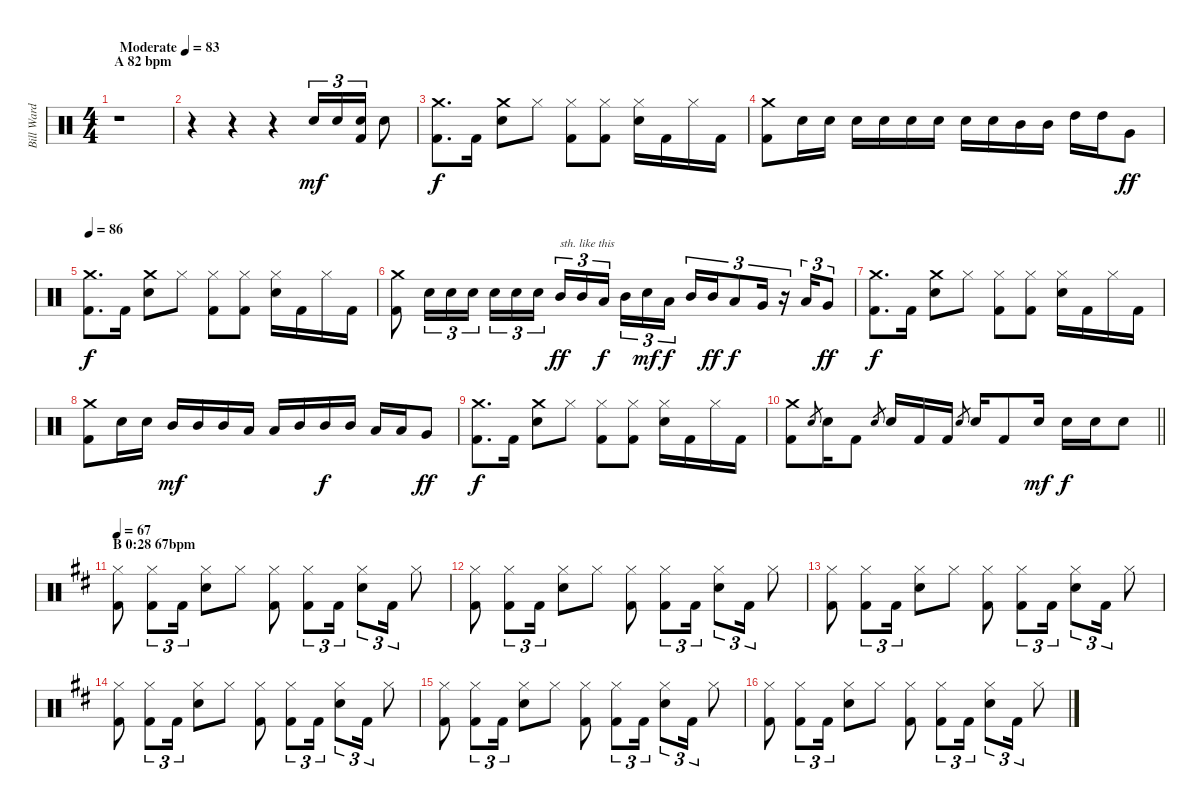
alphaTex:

\track ("Bill Ward (Drums)" "Bill Ward ") {instrument percussion}
\staff {score}
\articulation defaults
\ts (4 4)
\section ("" "A 82 bpm")
\tempo (83 "Moderate")
\clef neutral
\ks c
r.1{dy mf} |
r.4 r.4 r.4 "Snare (hit) 2".16{tu (3 2)} "Snare (hit) 2".16{tu (3 2)} ("Snare (hit) 2" "Kick (hit) 2").16{tu (3 2)} "Snare (hit) 2".8 |
("Crash medium (hit)" "Kick (hit) 2").8{d dy f volume 11} "Kick (hit) 2".16 ("Crash medium (hit)" "Snare (hit) 2").8 "Hi-Hat (closed)".8 ("Hi-Hat (closed)" "Kick (hit) 2").8 ("Hi-Hat (closed)" "Kick (hit) 2").8 ("Hi-Hat (closed)" "Snare (hit) 2").16 "Kick (hit) 2".16 "Hi-Hat (closed)".16 "Kick (hit) 2".16 |
("Crash medium (hit)" "Kick (hit) 2").8 "Snare (hit) 2".16 "Snare (hit) 2".16 "Snare (hit) 2".16 "Snare (hit) 2".16 "Snare (hit) 2".16 "Snare (hit) 2".16 "Snare (hit) 2".16 "Snare (hit) 2".16 "Mid Tom (hit)".16 "Mid Tom (hit)".16 "High Tom (hit)".16 "High Tom (hit)".16 "Very Low Tom (hit)".8{dy ff} |
\tempo 86
("Crash medium (hit)" "Kick (hit) 2").8{d dy f} "Kick (hit) 2".16 ("Crash medium (hit)" "Snare (hit) 2").8 "Hi-Hat (closed)".8 ("Hi-Hat (closed)" "Kick (hit) 2").8 ("Hi-Hat (closed)" "Kick (hit) 2").8 ("Hi-Hat (closed)" "Snare (hit) 2").16 "Kick (hit) 2".16 "Hi-Hat (closed)".16 "Kick (hit) 2".16 |
("Crash medium (hit)" "Kick (hit) 2").8 "Snare (hit) 2".16{tu (3 2)} "Snare (hit) 2".16{tu (3 2)} "Snare (hit) 2".16{tu (3 2)} "Snare (hit) 2".16{tu (3 2)} "Snare (hit) 2".16{tu (3 2)} "Snare (hit) 2".16{tu (3 2) beam splitsecondary} "Mid Tom (hit)".16{tu (3 2) txt "sth. like this" dy ff} "Mid Tom (hit)".16{tu (3 2)} "Low Tom (hit)".16{tu (3 2) dy f} "Mid Tom (hit)".16{tu (3 2)} "Snare (hit) 2".16{tu (3 2) dy mf} "Low Tom (hit)".16{tu (3 2) dy f beam splitsecondary} "Mid Tom (hit)".16{tu (3 2)} "Mid Tom (hit)".16{tu (3 2) dy ff} "Low Tom (hit)".8{tu (3 2) dy f} "Very Low Tom (hit)".16{tu (3 2)} r.16{tu (3 2)} "Low Tom (hit)".16{tu (3 2)} "Very Low Tom (hit)".8{tu (3 2) dy ff} |
("Crash medium (hit)" "Kick (hit) 2").8{d dy f} "Kick (hit) 2".16 ("Crash medium (hit)" "Snare (hit) 2").8 "Hi-Hat (closed)".8 ("Hi-Hat (closed)" "Kick (hit) 2").8 ("Hi-Hat (closed)" "Kick (hit) 2").8 ("Hi-Hat (closed)" "Snare (hit) 2").16 "Kick (hit) 2".16 "Hi-Hat (closed)".16 "Kick (hit) 2".16 |
("Crash medium (hit)" "Kick (hit) 2").8 "Snare (hit) 2".16 "Snare (hit) 2".16 "Mid Tom (hit)".16{dy mf} "Mid Tom (hit)".16 "Mid Tom (hit)".16 "Low Tom (hit)".16 "Low Tom (hit)".16 "Mid Tom (hit)".16 "Mid Tom (hit)".16{dy f} "Mid Tom (hit)".16 "Low Tom (hit)".16 "Low Tom (hit)".16 "Very Low Tom (hit)".8{dy ff} |
("Crash medium (hit)" "Kick (hit) 2").8{d dy f} "Kick (hit) 2".16 ("Crash medium (hit)" "Snare (hit) 2").8 "Hi-Hat (closed)".8 ("Hi-Hat (closed)" "Kick (hit) 2").8 ("Hi-Hat (closed)" "Kick (hit) 2").8 ("Hi-Hat (closed)" "Snare (hit) 2").16 "Kick (hit) 2".16 "Hi-Hat (closed)".16 "Kick (hit) 2".16 |
\barLineRight lightlight
("Crash medium (hit)" "Kick (hit) 2").8 "Snare (hit) 2".8{gr} "Snare (hit) 2".16 "Kick (hit) 2".8 "Snare (hit) 2".8{gr} "Snare (hit) 2".16 "Kick (hit) 2".16 "Kick (hit) 2".16 "Snare (hit) 2".8{gr} "Snare (hit) 2".16 "Kick (hit) 2".8 "Snare (hit) 2".16{dy mf} "Snare (hit) 2".16{dy f} "Snare (hit) 2".16 "Snare (hit) 2".8 |
\section ("" "B 0:28 67bpm")
\tempo 67
\ks d
("Hi-Hat (closed)" "Kick (hit) 2").8 ("Hi-Hat (closed)" "Kick (hit) 2").8{tu (3 2)} "Kick (hit) 2".16{tu (3 2)} ("Hi-Hat (closed)" "Snare (hit) 2").8 "Hi-Hat (closed)".8 ("Hi-Hat (closed)" "Kick (hit) 2").8 ("Hi-Hat (closed)" "Kick (hit) 2").8{tu (3 2)} "Kick (hit) 2".16{tu (3 2)} ("Hi-Hat (closed)" "Snare (hit) 2").8{tu (3 2)} "Kick (hit) 2".16{tu (3 2)} "Hi-Hat (closed)".8 |
("Hi-Hat (closed)" "Kick (hit) 2").8 ("Hi-Hat (closed)" "Kick (hit) 2").8{tu (3 2)} "Kick (hit) 2".16{tu (3 2)} ("Hi-Hat (closed)" "Snare (hit) 2").8 "Hi-Hat (closed)".8 ("Hi-Hat (closed)" "Kick (hit) 2").8 ("Hi-Hat (closed)" "Kick (hit) 2").8{tu (3 2)} "Kick (hit) 2".16{tu (3 2)} ("Hi-Hat (closed)" "Snare (hit) 2").8{tu (3 2)} "Kick (hit) 2".16{tu (3 2)} "Hi-Hat (closed)".8 |
("Hi-Hat (closed)" "Kick (hit) 2").8 ("Hi-Hat (closed)" "Kick (hit) 2").8{tu (3 2)} "Kick (hit) 2".16{tu (3 2)} ("Hi-Hat (closed)" "Snare (hit) 2").8 "Hi-Hat (closed)".8 ("Hi-Hat (closed)" "Kick (hit) 2").8 ("Hi-Hat (closed)" "Kick (hit) 2").8{tu (3 2)} "Kick (hit) 2".16{tu (3 2)} ("Hi-Hat (closed)" "Snare (hit) 2").8{tu (3 2)} "Kick (hit) 2".16{tu (3 2)} "Hi-Hat (closed)".8 |
("Hi-Hat (closed)" "Kick (hit) 2").8 ("Hi-Hat (closed)" "Kick (hit) 2").8{tu (3 2)} "Kick (hit) 2".16{tu (3 2)} ("Hi-Hat (closed)" "Snare (hit) 2").8 "Hi-Hat (closed)".8 ("Hi-Hat (closed)" "Kick (hit) 2").8 ("Hi-Hat (closed)" "Kick (hit) 2").8{tu (3 2)} "Kick (hit) 2".16{tu (3 2)} ("Hi-Hat (closed)" "Snare (hit) 2").8{tu (3 2)} "Kick (hit) 2".16{tu (3 2)} "Hi-Hat (closed)".8 |
("Hi-Hat (closed)" "Kick (hit) 2").8 ("Hi-Hat (closed)" "Kick (hit) 2").8{tu (3 2)} "Kick (hit) 2".16{tu (3 2)} ("Hi-Hat (closed)" "Snare (hit) 2").8 "Hi-Hat (closed)".8 ("Hi-Hat (closed)" "Kick (hit) 2").8 ("Hi-Hat (closed)" "Kick (hit) 2").8{tu (3 2)} "Kick (hit) 2".16{tu (3 2)} ("Hi-Hat (closed)" "Snare (hit) 2").8{tu (3 2)} "Kick (hit) 2".16{tu (3 2)} "Hi-Hat (closed)".8 |
("Hi-Hat (closed)" "Kick (hit) 2").8 ("Hi-Hat (closed)" "Kick (hit) 2").8{tu (3 2)} "Kick (hit) 2".16{tu (3 2)} ("Hi-Hat (closed)" "Snare (hit) 2").8 "Hi-Hat (closed)".8 ("Hi-Hat (closed)" "Kick (hit) 2").8 ("Hi-Hat (closed)" "Kick (hit) 2").8{tu (3 2)} "Kick (hit) 2".16{tu (3 2)} ("Hi-Hat (closed)" "Snare (hit) 2").8{tu (3 2)} "Kick (hit) 2".16{tu (3 2)} "Hi-Hat (closed)".8
